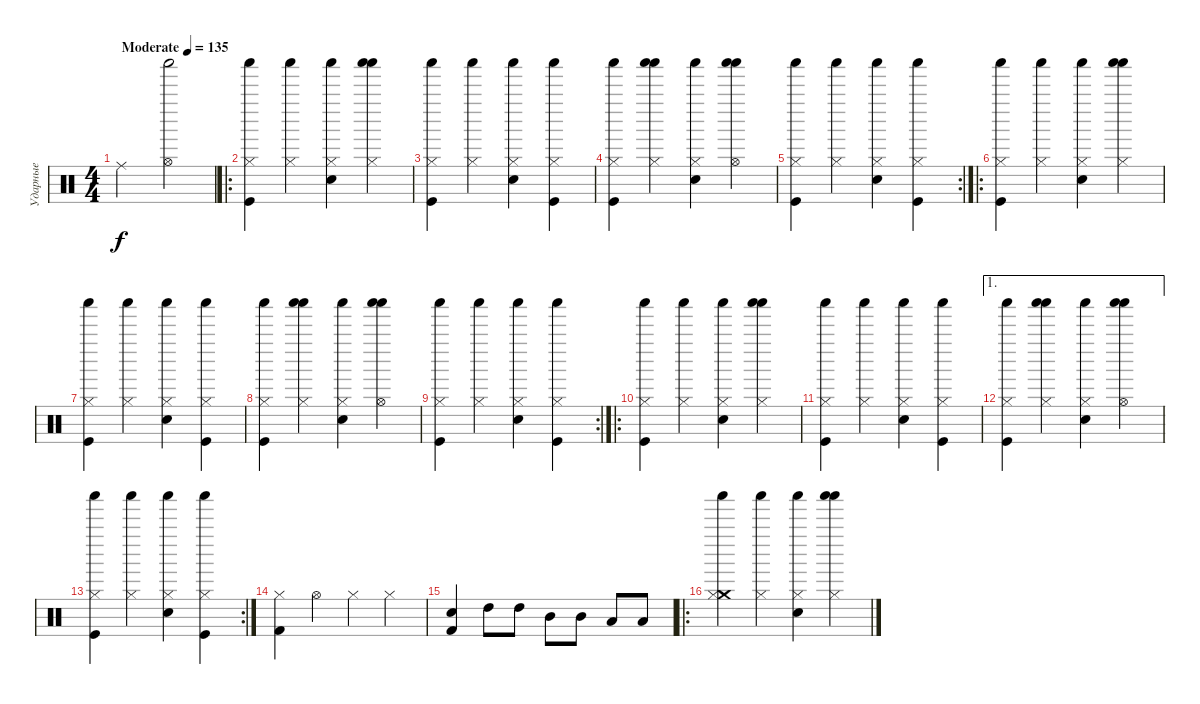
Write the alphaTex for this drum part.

\track ("Ударные" "Ударные") {instrument percussion}
\staff {score}
\articulation defaults
\ts (4 4)
\tempo (135 "Moderate")
\clef neutral
\ks c "Ride (middle)".2{dy f}
("Hi-Hat (open)" "Shaker (hit)").2 |
\ro
("Shaker (hit)" "Kick (hit)" "Hi-Hat (closed)").4 ("Shaker (hit)" "Hi-Hat (closed)").4 ("Shaker (hit)" "Snare (hit) 2" "Hi-Hat (closed)").4 ("Shaker (hit)" "Shaker (hit)" "Hi-Hat (closed)").4 |
("Shaker (hit)" "Kick (hit)" "Hi-Hat (closed)").4 ("Shaker (hit)" "Hi-Hat (closed)").4 ("Shaker (hit)" "Snare (hit) 2" "Hi-Hat (closed)").4 ("Shaker (hit)" "Kick (hit)" "Hi-Hat (closed)").4 |
("Shaker (hit)" "Kick (hit)" "Hi-Hat (closed)").4 ("Shaker (hit)" "Shaker (hit)" "Hi-Hat (closed)").4 ("Shaker (hit)" "Snare (hit) 2" "Hi-Hat (closed)").4 ("Shaker (hit)" "Shaker (hit)" "Hi-Hat (open)").4 |
\rc 2
("Shaker (hit)" "Kick (hit)" "Hi-Hat (closed)").4 ("Shaker (hit)" "Hi-Hat (closed)").4 ("Shaker (hit)" "Snare (hit) 2" "Hi-Hat (closed)").4 ("Shaker (hit)" "Kick (hit)" "Hi-Hat (closed)").4 |
\ro
("Shaker (hit)" "Kick (hit)" "Hi-Hat (closed)").4 ("Shaker (hit)" "Hi-Hat (closed)").4 ("Shaker (hit)" "Snare (hit) 2" "Hi-Hat (closed)").4 ("Shaker (hit)" "Shaker (hit)" "Hi-Hat (closed)").4 |
("Shaker (hit)" "Kick (hit)" "Hi-Hat (closed)").4 ("Shaker (hit)" "Hi-Hat (closed)").4 ("Shaker (hit)" "Snare (hit) 2" "Hi-Hat (closed)").4 ("Shaker (hit)" "Kick (hit)" "Hi-Hat (closed)").4 |
("Shaker (hit)" "Kick (hit)" "Hi-Hat (closed)").4 ("Shaker (hit)" "Shaker (hit)" "Hi-Hat (closed)").4 ("Shaker (hit)" "Snare (hit) 2" "Hi-Hat (closed)").4 ("Shaker (hit)" "Shaker (hit)" "Hi-Hat (open)").4 |
\rc 2
("Shaker (hit)" "Kick (hit)" "Hi-Hat (closed)").4 ("Shaker (hit)" "Hi-Hat (closed)").4 ("Shaker (hit)" "Snare (hit) 2" "Hi-Hat (closed)").4 ("Shaker (hit)" "Kick (hit)" "Hi-Hat (closed)").4 |
\ro
("Shaker (hit)" "Kick (hit)" "Hi-Hat (closed)").4 ("Shaker (hit)" "Hi-Hat (closed)").4 ("Shaker (hit)" "Snare (hit) 2" "Hi-Hat (closed)").4 ("Shaker (hit)" "Shaker (hit)" "Hi-Hat (closed)").4 |
("Shaker (hit)" "Kick (hit)" "Hi-Hat (closed)").4 ("Shaker (hit)" "Hi-Hat (closed)").4 ("Shaker (hit)" "Snare (hit) 2" "Hi-Hat (closed)").4 ("Shaker (hit)" "Kick (hit)" "Hi-Hat (closed)").4 |
\ae 1
("Shaker (hit)" "Kick (hit)" "Hi-Hat (closed)").4 ("Shaker (hit)" "Shaker (hit)" "Hi-Hat (closed)").4 ("Shaker (hit)" "Snare (hit) 2" "Hi-Hat (closed)").4 ("Shaker (hit)" "Shaker (hit)" "Hi-Hat (open)").4 |
\rc 2
("Shaker (hit)" "Kick (hit)" "Hi-Hat (closed)").4 ("Shaker (hit)" "Hi-Hat (closed)").4 ("Shaker (hit)" "Snare (hit) 2" "Hi-Hat (closed)").4 ("Shaker (hit)" "Kick (hit)" "Hi-Hat (closed)").4 |
("Kick (hit) 2" "Hi-Hat (closed)").4 "Hi-Hat (open)".4 "Hi-Hat (closed)".4 "Hi-Hat (closed)".4 |
("Kick (hit) 2" "Snare (hit) 2").4 "High Tom (hit)".8 "High Tom (hit)".8 "Mid Tom (hit)".8 "Mid Tom (hit)".8 "Low Tom (hit)".8 "Low Tom (hit)".8 |
\ro
("Shaker (hit)" "Crash medium (hit)" "Hi-Hat (closed)").4 ("Shaker (hit)" "Hi-Hat (closed)").4 ("Shaker (hit)" "Snare (hit) 2" "Hi-Hat (closed)").4 ("Shaker (hit)" "Shaker (hit)" "Hi-Hat (closed)").4
